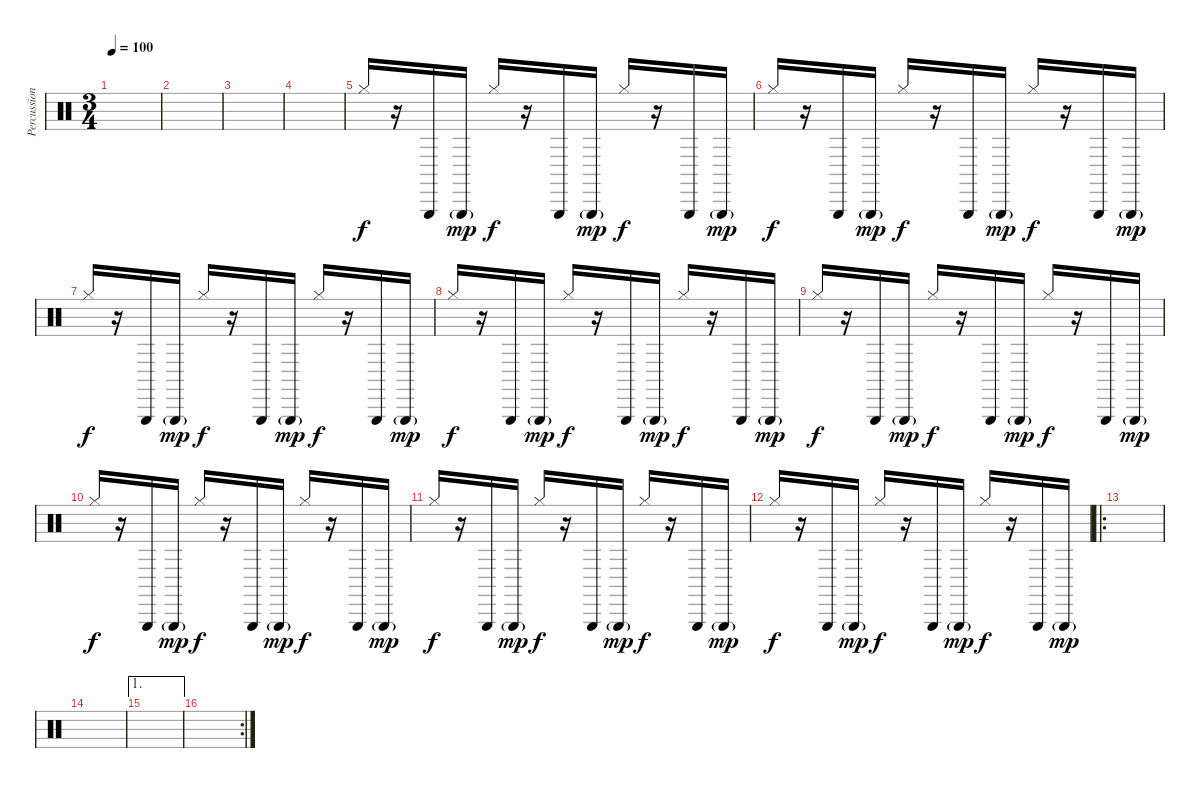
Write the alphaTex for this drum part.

\track ("Percussion" "Percussion") {instrument percussion}
\staff {score}
\articulation defaults
\ts (3 4)
\tempo 100
\clef neutral
\ks c
|
|
|
|
"Hi-Hat (closed)".16 r.16 "Triangle (hit)".16 "Triangle (hit)"{g}.16{dy mp} "Hi-Hat (closed)".16{dy f} r.16 "Triangle (hit)".16 "Triangle (hit)"{g}.16{dy mp} "Hi-Hat (closed)".16{dy f} r.16 "Triangle (hit)".16 "Triangle (hit)"{g}.16{dy mp} |
"Hi-Hat (closed)".16{dy f} r.16 "Triangle (hit)".16 "Triangle (hit)"{g}.16{dy mp} "Hi-Hat (closed)".16{dy f} r.16 "Triangle (hit)".16 "Triangle (hit)"{g}.16{dy mp} "Hi-Hat (closed)".16{dy f} r.16 "Triangle (hit)".16 "Triangle (hit)"{g}.16{dy mp} |
"Hi-Hat (closed)".16{dy f} r.16 "Triangle (hit)".16 "Triangle (hit)"{g}.16{dy mp} "Hi-Hat (closed)".16{dy f} r.16 "Triangle (hit)".16 "Triangle (hit)"{g}.16{dy mp} "Hi-Hat (closed)".16{dy f} r.16 "Triangle (hit)".16 "Triangle (hit)"{g}.16{dy mp} |
"Hi-Hat (closed)".16{dy f} r.16 "Triangle (hit)".16 "Triangle (hit)"{g}.16{dy mp} "Hi-Hat (closed)".16{dy f} r.16 "Triangle (hit)".16 "Triangle (hit)"{g}.16{dy mp} "Hi-Hat (closed)".16{dy f} r.16 "Triangle (hit)".16 "Triangle (hit)"{g}.16{dy mp} |
"Hi-Hat (closed)".16{dy f} r.16 "Triangle (hit)".16 "Triangle (hit)"{g}.16{dy mp} "Hi-Hat (closed)".16{dy f} r.16 "Triangle (hit)".16 "Triangle (hit)"{g}.16{dy mp} "Hi-Hat (closed)".16{dy f} r.16 "Triangle (hit)".16 "Triangle (hit)"{g}.16{dy mp} |
"Hi-Hat (closed)".16{dy f} r.16 "Triangle (hit)".16 "Triangle (hit)"{g}.16{dy mp} "Hi-Hat (closed)".16{dy f} r.16 "Triangle (hit)".16 "Triangle (hit)"{g}.16{dy mp} "Hi-Hat (closed)".16{dy f} r.16 "Triangle (hit)".16 "Triangle (hit)"{g}.16{dy mp} |
"Hi-Hat (closed)".16{dy f} r.16 "Triangle (hit)".16 "Triangle (hit)"{g}.16{dy mp} "Hi-Hat (closed)".16{dy f} r.16 "Triangle (hit)".16 "Triangle (hit)"{g}.16{dy mp} "Hi-Hat (closed)".16{dy f} r.16 "Triangle (hit)".16 "Triangle (hit)"{g}.16{dy mp} |
"Hi-Hat (closed)".16{dy f} r.16 "Triangle (hit)".16 "Triangle (hit)"{g}.16{dy mp} "Hi-Hat (closed)".16{dy f} r.16 "Triangle (hit)".16 "Triangle (hit)"{g}.16{dy mp} "Hi-Hat (closed)".16{dy f} r.16 "Triangle (hit)".16 "Triangle (hit)"{g}.16{dy mp} |
\ro
|
|
\ae 1
|
\rc 2
